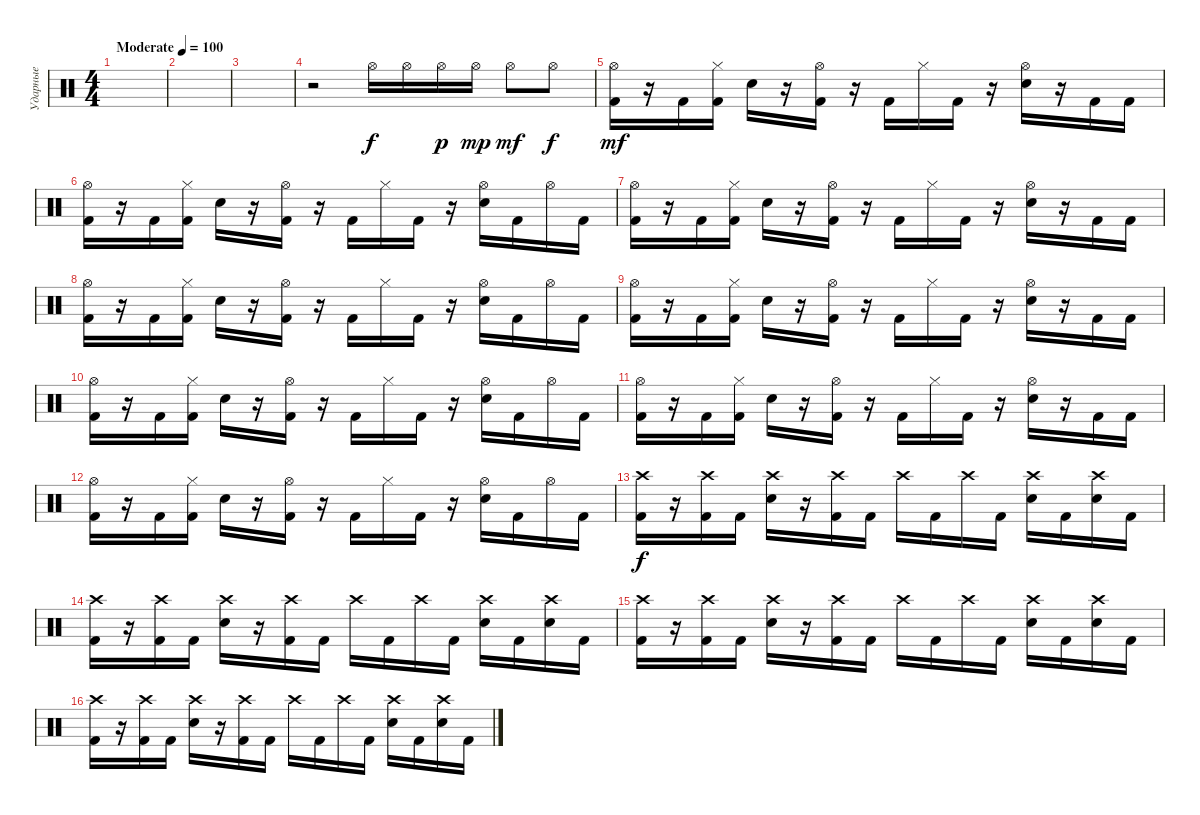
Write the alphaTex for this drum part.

\track ("Ударные" "Ударные") {instrument percussion}
\staff {score}
\articulation defaults
\ts (4 4)
\tempo (100 "Moderate")
\clef neutral
\ks c
|
|
|
r.2 "Hi-Hat (open)".16 "Hi-Hat (open)".16 "Hi-Hat (open)".16{dy p} "Hi-Hat (open)".16{dy mp} "Hi-Hat (open)".8{dy mf} "Hi-Hat (open)".8{dy f} |
("Hi-Hat (open)" "Kick (hit) 2").16{dy mf} r.16 "Kick (hit) 2".16 ("Hi-Hat (closed)" "Kick (hit) 2").16 "Electric Snare (hit)".16 r.16 ("Hi-Hat (open)" "Kick (hit) 2").16 r.16 "Kick (hit) 2".16 "Hi-Hat (closed)".16 "Kick (hit) 2".16 r.16 ("Hi-Hat (open)" "Electric Snare (hit)").16 r.16 "Kick (hit) 2".16 "Kick (hit) 2".16 |
("Hi-Hat (open)" "Kick (hit) 2").16 r.16 "Kick (hit) 2".16 ("Hi-Hat (closed)" "Kick (hit) 2").16 "Electric Snare (hit)".16 r.16 ("Hi-Hat (open)" "Kick (hit) 2").16 r.16 "Kick (hit) 2".16 "Hi-Hat (closed)".16 "Kick (hit) 2".16 r.16 ("Hi-Hat (open)" "Electric Snare (hit)").16 "Kick (hit) 2".16 "Hi-Hat (open)".16 "Kick (hit) 2".16 |
("Hi-Hat (open)" "Kick (hit) 2").16 r.16 "Kick (hit) 2".16 ("Hi-Hat (closed)" "Kick (hit) 2").16 "Electric Snare (hit)".16 r.16 ("Hi-Hat (open)" "Kick (hit) 2").16 r.16 "Kick (hit) 2".16 "Hi-Hat (closed)".16 "Kick (hit) 2".16 r.16 ("Hi-Hat (open)" "Electric Snare (hit)").16 r.16 "Kick (hit) 2".16 "Kick (hit) 2".16 |
("Hi-Hat (open)" "Kick (hit) 2").16 r.16 "Kick (hit) 2".16 ("Hi-Hat (closed)" "Kick (hit) 2").16 "Electric Snare (hit)".16 r.16 ("Hi-Hat (open)" "Kick (hit) 2").16 r.16 "Kick (hit) 2".16 "Hi-Hat (closed)".16 "Kick (hit) 2".16 r.16 ("Hi-Hat (open)" "Electric Snare (hit)").16 "Kick (hit) 2".16 "Hi-Hat (open)".16 "Kick (hit) 2".16 |
("Hi-Hat (open)" "Kick (hit) 2").16 r.16 "Kick (hit) 2".16 ("Hi-Hat (closed)" "Kick (hit) 2").16 "Electric Snare (hit)".16 r.16 ("Hi-Hat (open)" "Kick (hit) 2").16 r.16 "Kick (hit) 2".16 "Hi-Hat (closed)".16 "Kick (hit) 2".16 r.16 ("Hi-Hat (open)" "Electric Snare (hit)").16 r.16 "Kick (hit) 2".16 "Kick (hit) 2".16 |
("Hi-Hat (open)" "Kick (hit) 2").16 r.16 "Kick (hit) 2".16 ("Hi-Hat (closed)" "Kick (hit) 2").16 "Electric Snare (hit)".16 r.16 ("Hi-Hat (open)" "Kick (hit) 2").16 r.16 "Kick (hit) 2".16 "Hi-Hat (closed)".16 "Kick (hit) 2".16 r.16 ("Hi-Hat (open)" "Electric Snare (hit)").16 "Kick (hit) 2".16 "Hi-Hat (open)".16 "Kick (hit) 2".16 |
("Hi-Hat (open)" "Kick (hit) 2").16 r.16 "Kick (hit) 2".16 ("Hi-Hat (closed)" "Kick (hit) 2").16 "Electric Snare (hit)".16 r.16 ("Hi-Hat (open)" "Kick (hit) 2").16 r.16 "Kick (hit) 2".16 "Hi-Hat (closed)".16 "Kick (hit) 2".16 r.16 ("Hi-Hat (open)" "Electric Snare (hit)").16 r.16 "Kick (hit) 2".16 "Kick (hit) 2".16 |
("Hi-Hat (open)" "Kick (hit) 2").16 r.16 "Kick (hit) 2".16 ("Hi-Hat (closed)" "Kick (hit) 2").16 "Electric Snare (hit)".16 r.16 ("Hi-Hat (open)" "Kick (hit) 2").16 r.16 "Kick (hit) 2".16 "Hi-Hat (closed)".16 "Kick (hit) 2".16 r.16 ("Hi-Hat (open)" "Electric Snare (hit)").16 "Kick (hit) 2".16 "Hi-Hat (open)".16 "Kick (hit) 2".16 |
("Crash high (hit)" "Kick (hit) 2").16{dy f} r.16 ("Crash high (hit)" "Kick (hit) 2").16 "Kick (hit) 2".16 ("Crash high (hit)" "Electric Snare (hit)").16 r.16 ("Crash high (hit)" "Kick (hit) 2").16 "Kick (hit) 2".16 "Crash high (hit)".16 "Kick (hit) 2".16 "Crash high (hit)".16 "Kick (hit) 2".16 ("Crash high (hit)" "Electric Snare (hit)").16 "Kick (hit) 2".16 ("Crash high (hit)" "Electric Snare (hit)").16 "Kick (hit) 2".16 |
("Crash high (hit)" "Kick (hit) 2").16 r.16 ("Crash high (hit)" "Kick (hit) 2").16 "Kick (hit) 2".16 ("Crash high (hit)" "Electric Snare (hit)").16 r.16 ("Crash high (hit)" "Kick (hit) 2").16 "Kick (hit) 2".16 "Crash high (hit)".16 "Kick (hit) 2".16 "Crash high (hit)".16 "Kick (hit) 2".16 ("Crash high (hit)" "Electric Snare (hit)").16 "Kick (hit) 2".16 ("Crash high (hit)" "Electric Snare (hit)").16 "Kick (hit) 2".16 |
("Crash high (hit)" "Kick (hit) 2").16 r.16 ("Crash high (hit)" "Kick (hit) 2").16 "Kick (hit) 2".16 ("Crash high (hit)" "Electric Snare (hit)").16 r.16 ("Crash high (hit)" "Kick (hit) 2").16 "Kick (hit) 2".16 "Crash high (hit)".16 "Kick (hit) 2".16 "Crash high (hit)".16 "Kick (hit) 2".16 ("Crash high (hit)" "Electric Snare (hit)").16 "Kick (hit) 2".16 ("Crash high (hit)" "Electric Snare (hit)").16 "Kick (hit) 2".16 |
("Crash high (hit)" "Kick (hit) 2").16 r.16 ("Crash high (hit)" "Kick (hit) 2").16 "Kick (hit) 2".16 ("Crash high (hit)" "Electric Snare (hit)").16 r.16 ("Crash high (hit)" "Kick (hit) 2").16 "Kick (hit) 2".16 "Crash high (hit)".16 "Kick (hit) 2".16 "Crash high (hit)".16 "Kick (hit) 2".16 ("Crash high (hit)" "Electric Snare (hit)").16 "Kick (hit) 2".16 ("Crash high (hit)" "Electric Snare (hit)").16 "Kick (hit) 2".16
